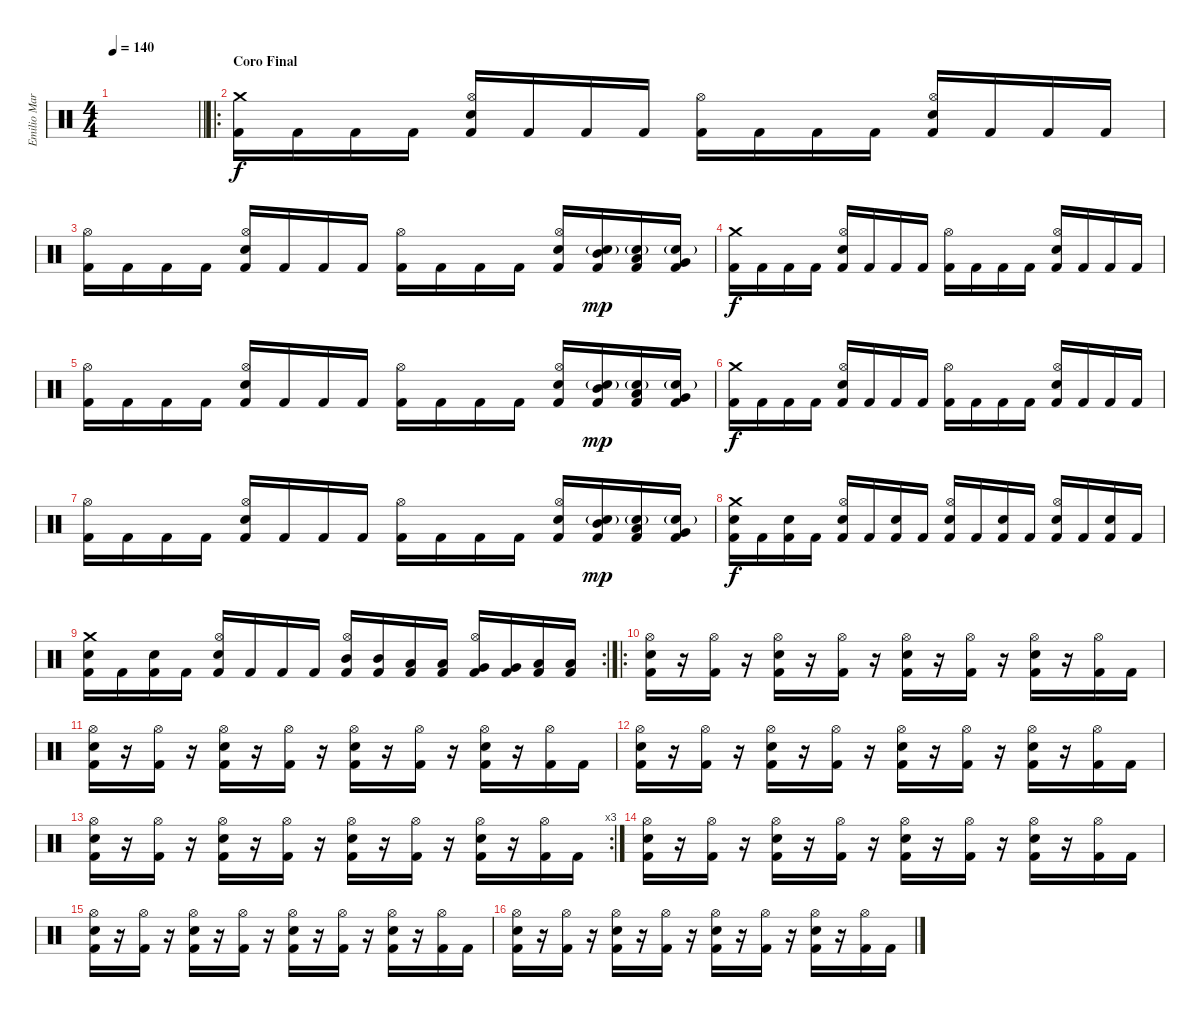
\track ("Emilio Marquez \"El sadistico\"" "Emilio Mar") {instrument percussion}
\staff {score}
\articulation defaults
\ts (4 4)
\tempo 140
\clef neutral
\barLineRight lightlight
\ks c
|
\ro
\section ("" "Coro Final")
("Crash medium (hit)" "Kick (hit) 2").16 "Kick (hit) 2".16 "Kick (hit) 2".16 "Kick (hit) 2".16 ("Hi-Hat (open)" "Electric Snare (hit)" "Kick (hit) 2").16 "Kick (hit) 2".16 "Kick (hit) 2".16 "Kick (hit) 2".16 ("Hi-Hat (open)" "Kick (hit) 2").16 "Kick (hit) 2".16 "Kick (hit) 2".16 "Kick (hit) 2".16 ("Hi-Hat (open)" "Electric Snare (hit)" "Kick (hit) 2").16 "Kick (hit) 2".16 "Kick (hit) 2".16 "Kick (hit) 2".16 |
("Hi-Hat (open)" "Kick (hit) 2").16 "Kick (hit) 2".16 "Kick (hit) 2".16 "Kick (hit) 2".16 ("Hi-Hat (open)" "Electric Snare (hit)" "Kick (hit) 2").16 "Kick (hit) 2".16 "Kick (hit) 2".16 "Kick (hit) 2".16 ("Hi-Hat (open)" "Kick (hit) 2").16 "Kick (hit) 2".16 "Kick (hit) 2".16 "Kick (hit) 2".16 ("Hi-Hat (open)" "Electric Snare (hit)" "Kick (hit) 2").16 ("Electric Snare (hit)"{g} "Mid Tom (hit)" "Kick (hit) 2").16{dy mp} ("Electric Snare (hit)"{g} "Low Tom (hit)" "Kick (hit) 2").16 ("Electric Snare (hit)"{g} "Very Low Tom (hit)" "Kick (hit) 2").16 |
("Crash medium (hit)" "Kick (hit) 2").16{dy f} "Kick (hit) 2".16 "Kick (hit) 2".16 "Kick (hit) 2".16 ("Hi-Hat (open)" "Electric Snare (hit)" "Kick (hit) 2").16 "Kick (hit) 2".16 "Kick (hit) 2".16 "Kick (hit) 2".16 ("Hi-Hat (open)" "Kick (hit) 2").16 "Kick (hit) 2".16 "Kick (hit) 2".16 "Kick (hit) 2".16 ("Hi-Hat (open)" "Electric Snare (hit)" "Kick (hit) 2").16 "Kick (hit) 2".16 "Kick (hit) 2".16 "Kick (hit) 2".16 |
("Hi-Hat (open)" "Kick (hit) 2").16 "Kick (hit) 2".16 "Kick (hit) 2".16 "Kick (hit) 2".16 ("Hi-Hat (open)" "Electric Snare (hit)" "Kick (hit) 2").16 "Kick (hit) 2".16 "Kick (hit) 2".16 "Kick (hit) 2".16 ("Hi-Hat (open)" "Kick (hit) 2").16 "Kick (hit) 2".16 "Kick (hit) 2".16 "Kick (hit) 2".16 ("Hi-Hat (open)" "Electric Snare (hit)" "Kick (hit) 2").16 ("Electric Snare (hit)"{g} "Mid Tom (hit)" "Kick (hit) 2").16{dy mp} ("Electric Snare (hit)"{g} "Low Tom (hit)" "Kick (hit) 2").16 ("Electric Snare (hit)"{g} "Very Low Tom (hit)" "Kick (hit) 2").16 |
("Crash medium (hit)" "Kick (hit) 2").16{dy f} "Kick (hit) 2".16 "Kick (hit) 2".16 "Kick (hit) 2".16 ("Hi-Hat (open)" "Electric Snare (hit)" "Kick (hit) 2").16 "Kick (hit) 2".16 "Kick (hit) 2".16 "Kick (hit) 2".16 ("Hi-Hat (open)" "Kick (hit) 2").16 "Kick (hit) 2".16 "Kick (hit) 2".16 "Kick (hit) 2".16 ("Hi-Hat (open)" "Electric Snare (hit)" "Kick (hit) 2").16 "Kick (hit) 2".16 "Kick (hit) 2".16 "Kick (hit) 2".16 |
("Hi-Hat (open)" "Kick (hit) 2").16 "Kick (hit) 2".16 "Kick (hit) 2".16 "Kick (hit) 2".16 ("Hi-Hat (open)" "Electric Snare (hit)" "Kick (hit) 2").16 "Kick (hit) 2".16 "Kick (hit) 2".16 "Kick (hit) 2".16 ("Hi-Hat (open)" "Kick (hit) 2").16 "Kick (hit) 2".16 "Kick (hit) 2".16 "Kick (hit) 2".16 ("Hi-Hat (open)" "Electric Snare (hit)" "Kick (hit) 2").16 ("Electric Snare (hit)"{g} "Mid Tom (hit)" "Kick (hit) 2").16{dy mp} ("Electric Snare (hit)"{g} "Low Tom (hit)" "Kick (hit) 2").16 ("Electric Snare (hit)"{g} "Very Low Tom (hit)" "Kick (hit) 2").16 |
("Crash medium (hit)" "Electric Snare (hit)" "Kick (hit) 2").16{dy f} "Kick (hit) 2".16 ("Electric Snare (hit)" "Kick (hit) 2").16 "Kick (hit) 2".16 ("Hi-Hat (open)" "Electric Snare (hit)" "Kick (hit) 2").16 "Kick (hit) 2".16 ("Electric Snare (hit)" "Kick (hit) 2").16 "Kick (hit) 2".16 ("Hi-Hat (open)" "Electric Snare (hit)" "Kick (hit) 2").16 "Kick (hit) 2".16 ("Electric Snare (hit)" "Kick (hit) 2").16 "Kick (hit) 2".16 ("Hi-Hat (open)" "Electric Snare (hit)" "Kick (hit) 2").16 "Kick (hit) 2".16 ("Electric Snare (hit)" "Kick (hit) 2").16 "Kick (hit) 2".16 |
\rc 2
("Crash medium (hit)" "Electric Snare (hit)" "Kick (hit) 2").16 "Kick (hit) 2".16 ("Electric Snare (hit)" "Kick (hit) 2").16 "Kick (hit) 2".16 ("Hi-Hat (open)" "Electric Snare (hit)" "Kick (hit) 2").16 "Kick (hit) 2".16 "Kick (hit) 2".16 "Kick (hit) 2".16 ("Hi-Hat (open)" "Mid Tom (hit)" "Kick (hit) 2").16 ("Mid Tom (hit)" "Kick (hit) 2").16 ("Low Tom (hit)" "Kick (hit) 2").16 ("Low Tom (hit)" "Kick (hit) 2").16 ("Hi-Hat (open)" "Very Low Tom (hit)" "Kick (hit) 2").16 ("Very Low Tom (hit)" "Kick (hit) 2").16 ("Low Floor Tom (hit)" "Kick (hit) 2").16 ("Low Floor Tom (hit)" "Kick (hit) 2").16 |
\ro
("Hi-Hat (open)" "Electric Snare (hit)" "Kick (hit) 2").16 r.16 ("Hi-Hat (open)" "Kick (hit) 2").16 r.16 ("Hi-Hat (open)" "Electric Snare (hit)" "Kick (hit) 2").16 r.16 ("Hi-Hat (open)" "Kick (hit) 2").16 r.16 ("Hi-Hat (open)" "Electric Snare (hit)" "Kick (hit) 2").16 r.16 ("Hi-Hat (open)" "Kick (hit) 2").16 r.16 ("Hi-Hat (open)" "Electric Snare (hit)" "Kick (hit) 2").16 r.16 ("Hi-Hat (open)" "Kick (hit) 2").16 "Kick (hit) 2".16 |
("Hi-Hat (open)" "Electric Snare (hit)" "Kick (hit) 2").16 r.16 ("Hi-Hat (open)" "Kick (hit) 2").16 r.16 ("Hi-Hat (open)" "Electric Snare (hit)" "Kick (hit) 2").16 r.16 ("Hi-Hat (open)" "Kick (hit) 2").16 r.16 ("Hi-Hat (open)" "Electric Snare (hit)" "Kick (hit) 2").16 r.16 ("Hi-Hat (open)" "Kick (hit) 2").16 r.16 ("Hi-Hat (open)" "Electric Snare (hit)" "Kick (hit) 2").16 r.16 ("Hi-Hat (open)" "Kick (hit) 2").16 "Kick (hit) 2".16 |
("Hi-Hat (open)" "Electric Snare (hit)" "Kick (hit) 2").16 r.16 ("Hi-Hat (open)" "Kick (hit) 2").16 r.16 ("Hi-Hat (open)" "Electric Snare (hit)" "Kick (hit) 2").16 r.16 ("Hi-Hat (open)" "Kick (hit) 2").16 r.16 ("Hi-Hat (open)" "Electric Snare (hit)" "Kick (hit) 2").16 r.16 ("Hi-Hat (open)" "Kick (hit) 2").16 r.16 ("Hi-Hat (open)" "Electric Snare (hit)" "Kick (hit) 2").16 r.16 ("Hi-Hat (open)" "Kick (hit) 2").16 "Kick (hit) 2".16 |
\rc 3
("Hi-Hat (open)" "Electric Snare (hit)" "Kick (hit) 2").16 r.16 ("Hi-Hat (open)" "Kick (hit) 2").16 r.16 ("Hi-Hat (open)" "Electric Snare (hit)" "Kick (hit) 2").16 r.16 ("Hi-Hat (open)" "Kick (hit) 2").16 r.16 ("Hi-Hat (open)" "Electric Snare (hit)" "Kick (hit) 2").16 r.16 ("Hi-Hat (open)" "Kick (hit) 2").16 r.16 ("Hi-Hat (open)" "Electric Snare (hit)" "Kick (hit) 2").16 r.16 ("Hi-Hat (open)" "Kick (hit) 2").16 "Kick (hit) 2".16 |
("Hi-Hat (open)" "Electric Snare (hit)" "Kick (hit) 2").16 r.16 ("Hi-Hat (open)" "Kick (hit) 2").16 r.16 ("Hi-Hat (open)" "Electric Snare (hit)" "Kick (hit) 2").16 r.16 ("Hi-Hat (open)" "Kick (hit) 2").16 r.16 ("Hi-Hat (open)" "Electric Snare (hit)" "Kick (hit) 2").16 r.16 ("Hi-Hat (open)" "Kick (hit) 2").16 r.16 ("Hi-Hat (open)" "Electric Snare (hit)" "Kick (hit) 2").16 r.16 ("Hi-Hat (open)" "Kick (hit) 2").16 "Kick (hit) 2".16 |
("Hi-Hat (open)" "Electric Snare (hit)" "Kick (hit) 2").16 r.16 ("Hi-Hat (open)" "Kick (hit) 2").16 r.16 ("Hi-Hat (open)" "Electric Snare (hit)" "Kick (hit) 2").16 r.16 ("Hi-Hat (open)" "Kick (hit) 2").16 r.16 ("Hi-Hat (open)" "Electric Snare (hit)" "Kick (hit) 2").16 r.16 ("Hi-Hat (open)" "Kick (hit) 2").16 r.16 ("Hi-Hat (open)" "Electric Snare (hit)" "Kick (hit) 2").16 r.16 ("Hi-Hat (open)" "Kick (hit) 2").16 "Kick (hit) 2".16 |
("Hi-Hat (open)" "Electric Snare (hit)" "Kick (hit) 2").16 r.16 ("Hi-Hat (open)" "Kick (hit) 2").16 r.16 ("Hi-Hat (open)" "Electric Snare (hit)" "Kick (hit) 2").16 r.16 ("Hi-Hat (open)" "Kick (hit) 2").16 r.16 ("Hi-Hat (open)" "Electric Snare (hit)" "Kick (hit) 2").16 r.16 ("Hi-Hat (open)" "Kick (hit) 2").16 r.16 ("Hi-Hat (open)" "Electric Snare (hit)" "Kick (hit) 2").16 r.16 ("Hi-Hat (open)" "Kick (hit) 2").16 "Kick (hit) 2".16
